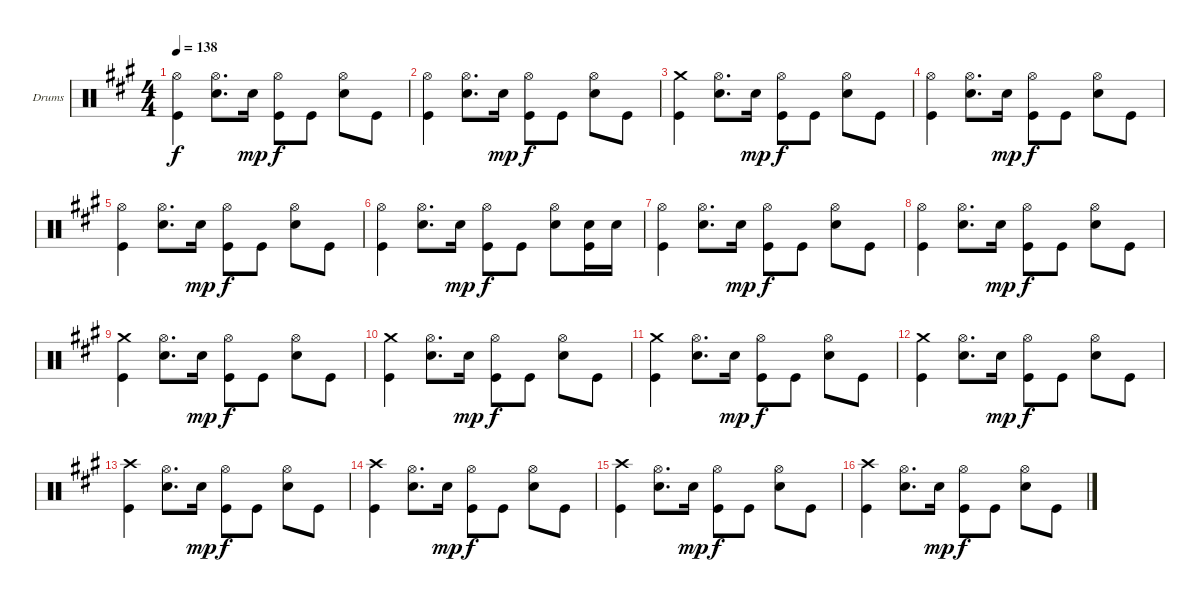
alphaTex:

\defaultSystemsLayout 4
\bracketExtendMode groupsimilarinstruments
\firstSystemTrackNameOrientation horizontal
\otherSystemsTrackNameOrientation horizontal
\track ("Drumkit" "Drums") {instrument percussion}
\staff {score}
\articulation defaults
\ts (4 4)
\tempo 138
\clef neutral
\scale
1.05801
\ks a
("Hi-Hat (open)" "Kick (hit)").4{dy f} ("Hi-Hat (open)" "Snare (hit) 2").8{d} "Snare (hit) 2".16{dy mp} ("Hi-Hat (open)" "Kick (hit)").8{dy f} "Kick (hit)".8 ("Hi-Hat (open)" "Snare (hit) 2").8 "Kick (hit)".8 |
\scale
0.941992 ("Hi-Hat (open)" "Kick (hit)").4 ("Hi-Hat (open)" "Snare (hit) 2").8{d} "Snare (hit) 2".16{dy mp} ("Hi-Hat (open)" "Kick (hit)").8{dy f} "Kick (hit)".8 ("Hi-Hat (open)" "Snare (hit) 2").8 "Kick (hit)".8 |
\scale
1.05801 ("Crash medium (hit)" "Kick (hit)").4 ("Hi-Hat (open)" "Snare (hit) 2").8{d} "Snare (hit) 2".16{dy mp} ("Hi-Hat (open)" "Kick (hit)").8{dy f} "Kick (hit)".8 ("Hi-Hat (open)" "Snare (hit) 2").8 "Kick (hit)".8 |
\scale
0.941992 ("Hi-Hat (open)" "Kick (hit)").4 ("Hi-Hat (open)" "Snare (hit) 2").8{d} "Snare (hit) 2".16{dy mp} ("Hi-Hat (open)" "Kick (hit)").8{dy f} "Kick (hit)".8 ("Hi-Hat (open)" "Snare (hit) 2").8 "Kick (hit)".8 |
\scale
1.05801 ("Hi-Hat (open)" "Kick (hit)").4 ("Hi-Hat (open)" "Snare (hit) 2").8{d} "Snare (hit) 2".16{dy mp} ("Hi-Hat (open)" "Kick (hit)").8{dy f} "Kick (hit)".8 ("Hi-Hat (open)" "Snare (hit) 2").8 "Kick (hit)".8 |
\scale
0.941992 ("Hi-Hat (open)" "Kick (hit)").4 ("Hi-Hat (open)" "Snare (hit) 2").8{d} "Snare (hit) 2".16{dy mp} ("Hi-Hat (open)" "Kick (hit)").8{dy f} "Kick (hit)".8 ("Hi-Hat (open)" "Snare (hit) 2").8 ("Snare (hit) 2" "Kick (hit)").16 "Snare (hit) 2".16 |
\scale
1.05801 ("Hi-Hat (open)" "Kick (hit)").4 ("Hi-Hat (open)" "Snare (hit) 2").8{d} "Snare (hit) 2".16{dy mp} ("Hi-Hat (open)" "Kick (hit)").8{dy f} "Kick (hit)".8 ("Hi-Hat (open)" "Snare (hit) 2").8 "Kick (hit)".8 |
\scale
0.941992 ("Hi-Hat (open)" "Kick (hit)").4 ("Hi-Hat (open)" "Snare (hit) 2").8{d} "Snare (hit) 2".16{dy mp} ("Hi-Hat (open)" "Kick (hit)").8{dy f} "Kick (hit)".8 ("Hi-Hat (open)" "Snare (hit) 2").8 "Kick (hit)".8 |
\scale
1.05801 ("Crash medium (hit)" "Kick (hit)").4 ("Hi-Hat (open)" "Snare (hit) 2").8{d} "Snare (hit) 2".16{dy mp} ("Hi-Hat (open)" "Kick (hit)").8{dy f} "Kick (hit)".8 ("Hi-Hat (open)" "Snare (hit) 2").8 "Kick (hit)".8 |
\scale
0.941992 ("Crash medium (hit)" "Kick (hit)").4 ("Hi-Hat (open)" "Snare (hit) 2").8{d} "Snare (hit) 2".16{dy mp} ("Hi-Hat (open)" "Kick (hit)").8{dy f} "Kick (hit)".8 ("Hi-Hat (open)" "Snare (hit) 2").8 "Kick (hit)".8 |
\scale
1.05801 ("Crash medium (hit)" "Kick (hit)").4 ("Hi-Hat (open)" "Snare (hit) 2").8{d} "Snare (hit) 2".16{dy mp} ("Hi-Hat (open)" "Kick (hit)").8{dy f} "Kick (hit)".8 ("Hi-Hat (open)" "Snare (hit) 2").8 "Kick (hit)".8 |
\scale
0.941992 ("Crash medium (hit)" "Kick (hit)").4 ("Hi-Hat (open)" "Snare (hit) 2").8{d} "Snare (hit) 2".16{dy mp} ("Hi-Hat (open)" "Kick (hit)").8{dy f} "Kick (hit)".8 ("Hi-Hat (open)" "Snare (hit) 2").8 "Kick (hit)".8 |
\scale
1.05801 ("Crash high (hit)" "Kick (hit)").4 ("Hi-Hat (open)" "Snare (hit) 2").8{d} "Snare (hit) 2".16{dy mp} ("Hi-Hat (open)" "Kick (hit)").8{dy f} "Kick (hit)".8 ("Hi-Hat (open)" "Snare (hit) 2").8 "Kick (hit)".8 |
\scale
0.941992 ("Crash high (hit)" "Kick (hit)").4 ("Hi-Hat (open)" "Snare (hit) 2").8{d} "Snare (hit) 2".16{dy mp} ("Hi-Hat (open)" "Kick (hit)").8{dy f} "Kick (hit)".8 ("Hi-Hat (open)" "Snare (hit) 2").8 "Kick (hit)".8 |
\scale
1.05801 ("Crash high (hit)" "Kick (hit)").4 ("Hi-Hat (open)" "Snare (hit) 2").8{d} "Snare (hit) 2".16{dy mp} ("Hi-Hat (open)" "Kick (hit)").8{dy f} "Kick (hit)".8 ("Hi-Hat (open)" "Snare (hit) 2").8 "Kick (hit)".8 |
\scale
0.941992 ("Crash high (hit)" "Kick (hit)").4 ("Hi-Hat (open)" "Snare (hit) 2").8{d} "Snare (hit) 2".16{dy mp} ("Hi-Hat (open)" "Kick (hit)").8{dy f} "Kick (hit)".8 ("Hi-Hat (open)" "Snare (hit) 2").8 "Kick (hit)".8
